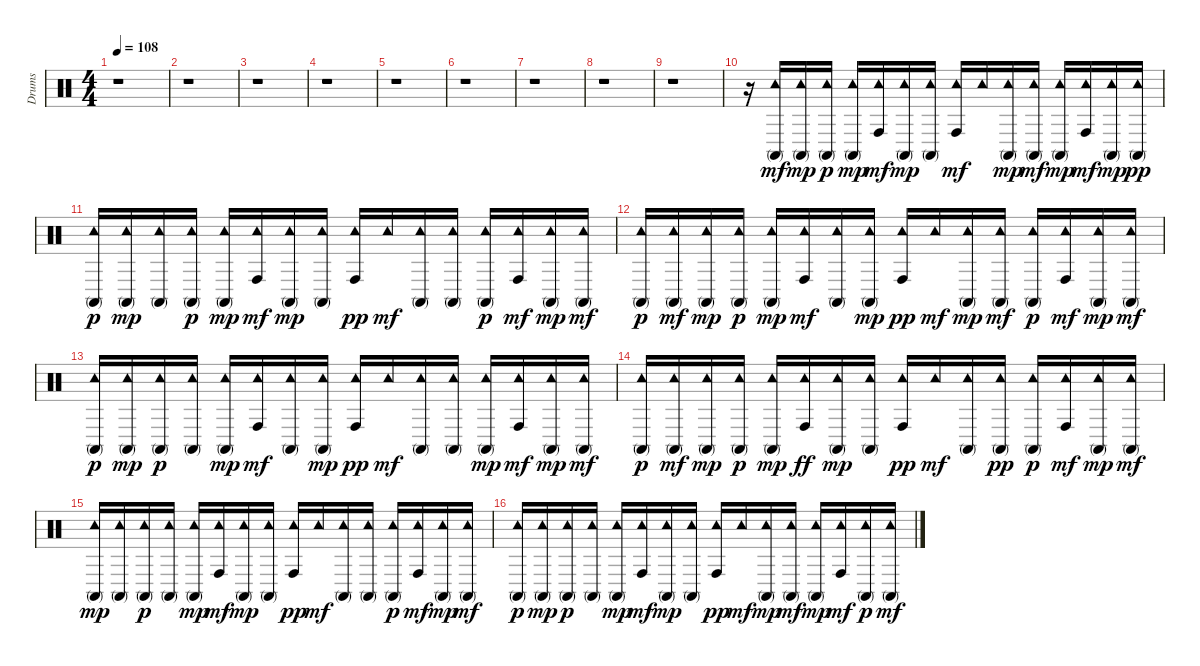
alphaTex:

\track ("Drums" "Drums") {instrument percussion}
\staff {score}
\articulation defaults
\ts (4 4)
\tempo 108
\clef neutral
\ks c
r.1{dy mf} |
r.1 |
r.1 |
r.1 |
r.1 |
r.1 |
r.1 |
r.1 |
r.1 |
r.16 ("Tambourine (hit)" "Conga high (mute)").16 ("Tambourine (hit)" "Conga high (mute)").16{dy mp} ("Tambourine (hit)" "Conga high (mute)").16{dy p} ("Tambourine (hit)" "Conga high (mute)").16{dy mp} ("Tambourine (hit)" "Conga high (hit)").16{dy mf} ("Tambourine (hit)" "Conga high (mute)").16{dy mp} ("Tambourine (hit)" "Conga high (mute)").16 ("Tambourine (hit)" "Conga high (hit)").16{dy mf} "Tambourine (hit)".16 ("Tambourine (hit)" "Conga high (mute)").16{dy mp} ("Tambourine (hit)" "Conga high (mute)").16{dy mf} ("Tambourine (hit)" "Conga high (mute)").16{dy mp} ("Tambourine (hit)" "Conga high (hit)").16{dy mf} ("Tambourine (hit)" "Conga high (mute)").16{dy mp} ("Tambourine (hit)" "Conga high (mute)").16{dy pp} |
("Tambourine (hit)" "Conga high (mute)").16{dy p} ("Tambourine (hit)" "Conga high (mute)").16{dy mp} ("Tambourine (hit)" "Conga high (mute)").16 ("Tambourine (hit)" "Conga high (mute)").16{dy p} ("Tambourine (hit)" "Conga high (mute)").16{dy mp} ("Tambourine (hit)" "Conga high (hit)").16{dy mf} ("Tambourine (hit)" "Conga high (mute)").16{dy mp} ("Tambourine (hit)" "Conga high (mute)").16 ("Tambourine (hit)" "Conga high (hit)").16{dy pp} "Tambourine (hit)".16{dy mf} ("Tambourine (hit)" "Conga high (mute)").16 ("Tambourine (hit)" "Conga high (mute)").16 ("Tambourine (hit)" "Conga high (mute)").16{dy p} ("Tambourine (hit)" "Conga high (hit)").16{dy mf} ("Tambourine (hit)" "Conga high (mute)").16{dy mp} ("Tambourine (hit)" "Conga high (mute)").16{dy mf} |
("Tambourine (hit)" "Conga high (mute)").16{dy p} ("Tambourine (hit)" "Conga high (mute)").16{dy mf} ("Tambourine (hit)" "Conga high (mute)").16{dy mp} ("Tambourine (hit)" "Conga high (mute)").16{dy p} ("Tambourine (hit)" "Conga high (mute)").16{dy mp} ("Tambourine (hit)" "Conga high (hit)").16{dy mf} ("Tambourine (hit)" "Conga high (mute)").16 ("Tambourine (hit)" "Conga high (mute)").16{dy mp} ("Tambourine (hit)" "Conga high (hit)").16{dy pp} "Tambourine (hit)".16{dy mf} ("Tambourine (hit)" "Conga high (mute)").16{dy mp} ("Tambourine (hit)" "Conga high (mute)").16{dy mf} ("Tambourine (hit)" "Conga high (mute)").16{dy p} ("Tambourine (hit)" "Conga high (hit)").16{dy mf} ("Tambourine (hit)" "Conga high (mute)").16{dy mp} ("Tambourine (hit)" "Conga high (mute)").16{dy mf} |
("Tambourine (hit)" "Conga high (mute)").16{dy p} ("Tambourine (hit)" "Conga high (mute)").16{dy mp} ("Tambourine (hit)" "Conga high (mute)").16{dy p} ("Tambourine (hit)" "Conga high (mute)").16 ("Tambourine (hit)" "Conga high (mute)").16{dy mp} ("Tambourine (hit)" "Conga high (hit)").16{dy mf} ("Tambourine (hit)" "Conga high (mute)").16 ("Tambourine (hit)" "Conga high (mute)").16{dy mp} ("Tambourine (hit)" "Conga high (hit)").16{dy pp} "Tambourine (hit)".16{dy mf} ("Tambourine (hit)" "Conga high (mute)").16 ("Tambourine (hit)" "Conga high (mute)").16 ("Tambourine (hit)" "Conga high (mute)").16{dy mp} ("Tambourine (hit)" "Conga high (hit)").16{dy mf} ("Tambourine (hit)" "Conga high (mute)").16{dy mp} ("Tambourine (hit)" "Conga high (mute)").16{dy mf} |
("Tambourine (hit)" "Conga high (mute)").16{dy p} ("Tambourine (hit)" "Conga high (mute)").16{dy mf} ("Tambourine (hit)" "Conga high (mute)").16{dy mp} ("Tambourine (hit)" "Conga high (mute)").16{dy p} ("Tambourine (hit)" "Conga high (mute)").16{dy mp} ("Tambourine (hit)" "Conga high (hit)").16{dy ff} ("Tambourine (hit)" "Conga high (mute)").16{dy mp} ("Tambourine (hit)" "Conga high (mute)").16 ("Tambourine (hit)" "Conga high (hit)").16{dy pp} "Tambourine (hit)".16{dy mf} ("Tambourine (hit)" "Conga high (mute)").16 ("Tambourine (hit)" "Conga high (mute)").16{dy pp} ("Tambourine (hit)" "Conga high (mute)").16{dy p} ("Tambourine (hit)" "Conga high (hit)").16{dy mf} ("Tambourine (hit)" "Conga high (mute)").16{dy mp} ("Tambourine (hit)" "Conga high (mute)").16{dy mf} |
("Tambourine (hit)" "Conga high (mute)").16{dy mp} ("Tambourine (hit)" "Conga high (mute)").16 ("Tambourine (hit)" "Conga high (mute)").16{dy p} ("Tambourine (hit)" "Conga high (mute)").16 ("Tambourine (hit)" "Conga high (mute)").16{dy mp} ("Tambourine (hit)" "Conga high (hit)").16{dy mf} ("Tambourine (hit)" "Conga high (mute)").16{dy mp} ("Tambourine (hit)" "Conga high (mute)").16 ("Tambourine (hit)" "Conga high (hit)").16{dy pp} "Tambourine (hit)".16{dy mf} ("Tambourine (hit)" "Conga high (mute)").16 ("Tambourine (hit)" "Conga high (mute)").16 ("Tambourine (hit)" "Conga high (mute)").16{dy p} ("Tambourine (hit)" "Conga high (hit)").16{dy mf} ("Tambourine (hit)" "Conga high (mute)").16{dy mp} ("Tambourine (hit)" "Conga high (mute)").16{dy mf} |
("Tambourine (hit)" "Conga high (mute)").16{dy p} ("Tambourine (hit)" "Conga high (mute)").16{dy mp} ("Tambourine (hit)" "Conga high (mute)").16{dy p} ("Tambourine (hit)" "Conga high (mute)").16 ("Tambourine (hit)" "Conga high (mute)").16{dy mp} ("Tambourine (hit)" "Conga high (hit)").16{dy mf} ("Tambourine (hit)" "Conga high (mute)").16{dy mp} ("Tambourine (hit)" "Conga high (mute)").16 ("Tambourine (hit)" "Conga high (hit)").16{dy pp} "Tambourine (hit)".16{dy mf} ("Tambourine (hit)" "Conga high (mute)").16{dy mp} ("Tambourine (hit)" "Conga high (mute)").16{dy mf} ("Tambourine (hit)" "Conga high (mute)").16{dy mp} ("Tambourine (hit)" "Conga high (hit)").16{dy mf} ("Tambourine (hit)" "Conga high (mute)").16{dy p} ("Tambourine (hit)" "Conga high (mute)").16{dy mf}
